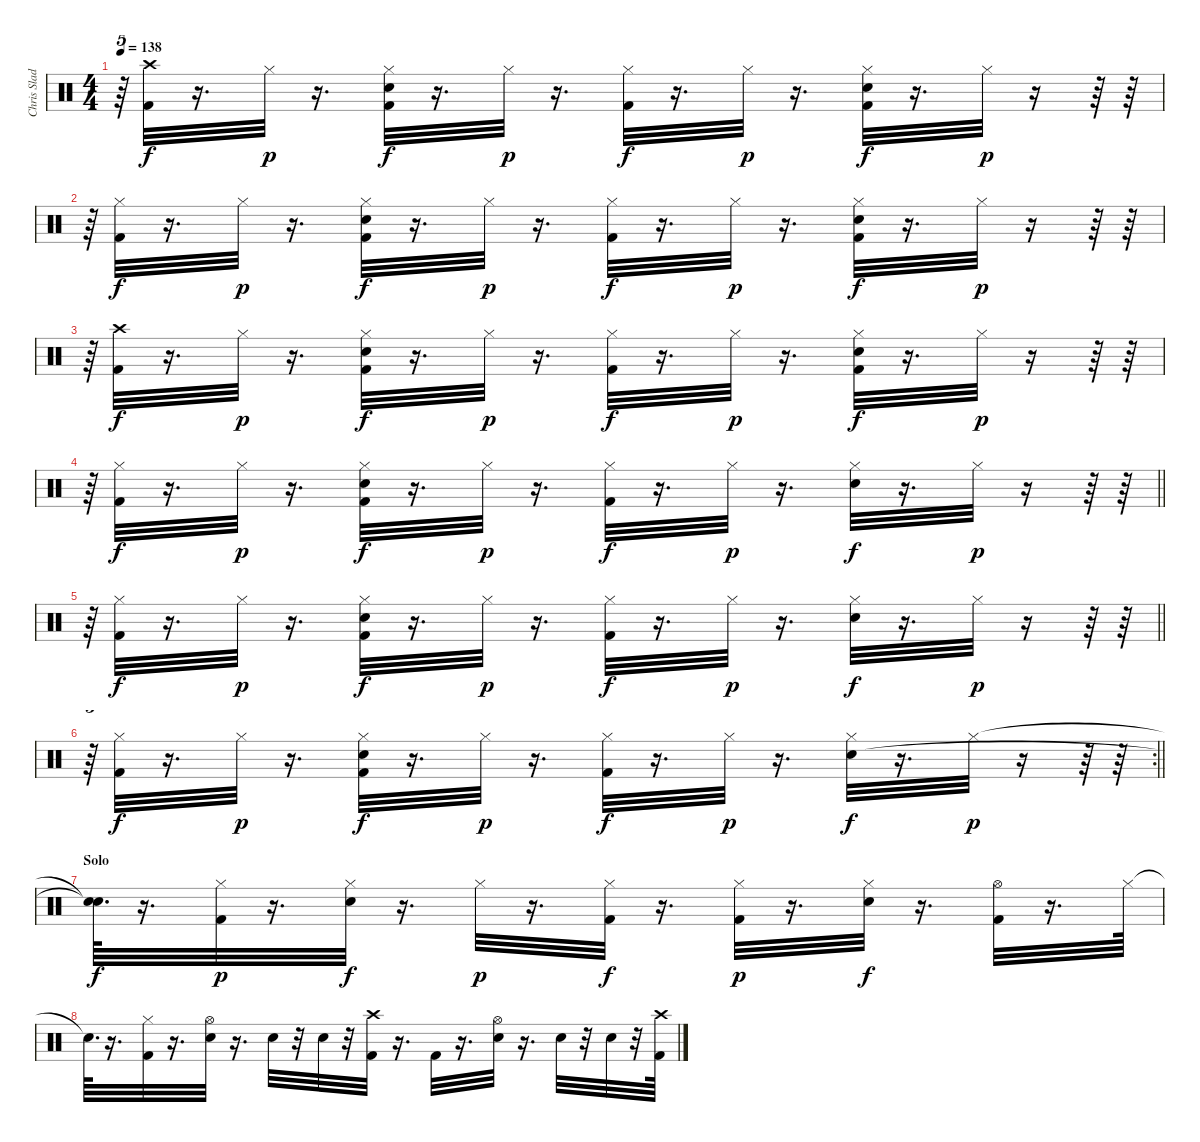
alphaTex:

\track ("Chris Slade" "Chris Slad") {instrument percussion}
\staff {score}
\articulation defaults
\ts (4 4)
\tempo 138
\clef neutral
\ks c
r.64{tu (5 4) dy p} ("Crash high (hit)" "Kick (hit) 2").32{dy f} r.16{d} "Hi-Hat (closed)".32{dy p} r.16{d} ("Kick (hit) 2" "Hi-Hat (closed)" "Electric Snare (hit)").32{dy f} r.16{d} "Hi-Hat (closed)".32{dy p} r.16{d} ("Hi-Hat (closed)" "Kick (hit) 2").32{dy f} r.16{d} "Hi-Hat (closed)".32{dy p} r.16{d} ("Kick (hit) 2" "Hi-Hat (closed)" "Electric Snare (hit)").32{dy f} r.16{d} "Hi-Hat (closed)".32{dy p} r.16 r.64 r.64 |
r.64{tu (5 4)} ("Hi-Hat (closed)" "Kick (hit) 2").32{dy f} r.16{d} "Hi-Hat (closed)".32{dy p} r.16{d} ("Kick (hit) 2" "Hi-Hat (closed)" "Electric Snare (hit)").32{dy f} r.16{d} "Hi-Hat (closed)".32{dy p} r.16{d} ("Hi-Hat (closed)" "Kick (hit) 2").32{dy f} r.16{d} "Hi-Hat (closed)".32{dy p} r.16{d} ("Kick (hit) 2" "Hi-Hat (closed)" "Electric Snare (hit)").32{dy f} r.16{d} "Hi-Hat (closed)".32{dy p} r.16 r.64 r.64 |
r.64{tu (5 4)} ("Crash high (hit)" "Kick (hit) 2").32{dy f} r.16{d} "Hi-Hat (closed)".32{dy p} r.16{d} ("Kick (hit) 2" "Hi-Hat (closed)" "Electric Snare (hit)").32{dy f} r.16{d} "Hi-Hat (closed)".32{dy p} r.16{d} ("Hi-Hat (closed)" "Kick (hit) 2").32{dy f} r.16{d} "Hi-Hat (closed)".32{dy p} r.16{d} ("Kick (hit) 2" "Hi-Hat (closed)" "Electric Snare (hit)").32{dy f} r.16{d} "Hi-Hat (closed)".32{dy p} r.16 r.64 r.64 |
\barLineRight lightlight
r.64{tu (5 4)} ("Hi-Hat (closed)" "Kick (hit) 2").32{dy f} r.16{d} "Hi-Hat (closed)".32{dy p} r.16{d} ("Kick (hit) 2" "Hi-Hat (closed)" "Electric Snare (hit)").32{dy f} r.16{d} "Hi-Hat (closed)".32{dy p} r.16{d} ("Hi-Hat (closed)" "Kick (hit) 2").32{dy f} r.16{d} "Hi-Hat (closed)".32{dy p} r.16{d} ("Hi-Hat (closed)" "Electric Snare (hit)").32{dy f} r.16{d} "Hi-Hat (closed)".32{dy p} r.16 r.64 r.64 |
\section ("" "")
\barLineRight lightlight
r.64{tu (5 4)} ("Hi-Hat (closed)" "Kick (hit) 2").32{dy f} r.16{d} "Hi-Hat (closed)".32{dy p} r.16{d} ("Kick (hit) 2" "Hi-Hat (closed)" "Electric Snare (hit)").32{dy f} r.16{d} "Hi-Hat (closed)".32{dy p} r.16{d} ("Hi-Hat (closed)" "Kick (hit) 2").32{dy f} r.16{d} "Hi-Hat (closed)".32{dy p} r.16{d} ("Hi-Hat (closed)" "Electric Snare (hit)").32{dy f} r.16{d} "Hi-Hat (closed)".32{dy p} r.16 r.64 r.64 |
\rc 2
\section ("" "")
\barLineRight lightlight
r.64{tu (5 4)} ("Hi-Hat (closed)" "Kick (hit) 2").32{dy f} r.16{d} "Hi-Hat (closed)".32{dy p} r.16{d} ("Kick (hit) 2" "Hi-Hat (closed)" "Electric Snare (hit)").32{dy f} r.16{d} "Hi-Hat (closed)".32{dy p} r.16{d} ("Hi-Hat (closed)" "Kick (hit) 2").32{dy f} r.16{d} "Hi-Hat (closed)".32{dy p} r.16{d} ("Hi-Hat (closed)" "Electric Snare (hit)").32{dy f} r.16{d} "Hi-Hat (closed)".32{dy p} r.16 r.64 r.64 |
\section ("" "Solo")
("Snare (hit)"{t} "Snare (hit)"{t}).64{d dy f} r.16{d} ("Hi-Hat (closed)" "Kick (hit) 2").32{dy p} r.16{d} ("Hi-Hat (closed)" "Electric Snare (hit)").32{dy f} r.16{d} "Hi-Hat (closed)".32{dy p} r.16{d} ("Hi-Hat (closed)" "Kick (hit) 2").32{dy f} r.16{d} ("Hi-Hat (closed)" "Kick (hit) 2").32{dy p} r.16{d} ("Hi-Hat (closed)" "Electric Snare (hit)").32{dy f} r.16{d} ("Hi-Hat (open)" "Kick (hit) 2").32 r.16{d} "Hi-Hat (closed)".64 |
"Snare (hit)"{t}.64{d} r.16{d} ("Hi-Hat (closed)" "Kick (hit) 2").32 r.16{d} ("Hi-Hat (open)" "Electric Snare (hit)").32 r.16{d} "Electric Snare (hit)".32 r.32 "Electric Snare (hit)".32 r.32 ("Crash high (hit)" "Kick (hit) 2").32 r.16{d} "Kick (hit) 2".32 r.16{d} ("Hi-Hat (open)" "Electric Snare (hit)").32 r.16{d} "Electric Snare (hit)".32 r.32 "Electric Snare (hit)".32 r.32 ("Crash high (hit)" "Kick (hit) 2").64
